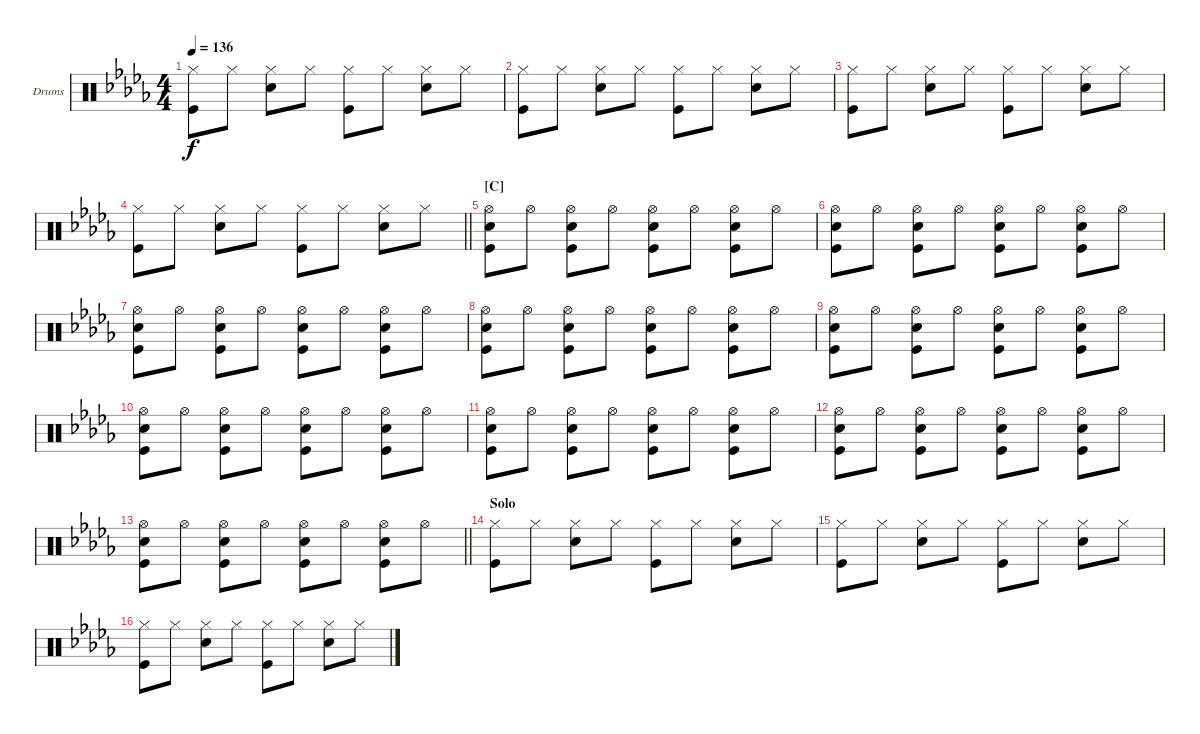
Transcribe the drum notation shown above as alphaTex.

\bracketExtendMode groupsimilarinstruments
\firstSystemTrackNameOrientation horizontal
\otherSystemsTrackNameOrientation horizontal
\track ("Fabrizio Moretti" "Drums") {instrument percussion}
\staff {score}
\articulation defaults
\ts (4 4)
\tempo 136
\clef neutral
\ks db
("Hi-Hat (closed)" "Kick (hit)").8{dy f} "Hi-Hat (closed)".8 ("Hi-Hat (closed)" "Snare (hit) 2").8 "Hi-Hat (closed)".8 ("Hi-Hat (closed)" "Kick (hit)").8 "Hi-Hat (closed)".8 ("Hi-Hat (closed)" "Snare (hit) 2").8 "Hi-Hat (closed)".8 |
("Hi-Hat (closed)" "Kick (hit)").8 "Hi-Hat (closed)".8 ("Hi-Hat (closed)" "Snare (hit) 2").8 "Hi-Hat (closed)".8 ("Hi-Hat (closed)" "Kick (hit)").8 "Hi-Hat (closed)".8 ("Hi-Hat (closed)" "Snare (hit) 2").8 "Hi-Hat (closed)".8 |
("Hi-Hat (closed)" "Kick (hit)").8 "Hi-Hat (closed)".8 ("Hi-Hat (closed)" "Snare (hit) 2").8 "Hi-Hat (closed)".8 ("Hi-Hat (closed)" "Kick (hit)").8 "Hi-Hat (closed)".8 ("Hi-Hat (closed)" "Snare (hit) 2").8 "Hi-Hat (closed)".8 |
\barLineRight lightlight
("Hi-Hat (closed)" "Kick (hit)").8 "Hi-Hat (closed)".8 ("Hi-Hat (closed)" "Snare (hit) 2").8 "Hi-Hat (closed)".8 ("Hi-Hat (closed)" "Kick (hit)").8 "Hi-Hat (closed)".8 ("Hi-Hat (closed)" "Snare (hit) 2").8 "Hi-Hat (closed)".8 |
\section ("C" "")
("Hi-Hat (open)" "Snare (hit) 2" "Kick (hit)").8 "Hi-Hat (open)".8 ("Hi-Hat (open)" "Snare (hit) 2" "Kick (hit)").8 "Hi-Hat (open)".8 ("Hi-Hat (open)" "Snare (hit) 2" "Kick (hit)").8 "Hi-Hat (open)".8 ("Hi-Hat (open)" "Snare (hit) 2" "Kick (hit)").8 "Hi-Hat (open)".8 |
("Hi-Hat (open)" "Snare (hit) 2" "Kick (hit)").8 "Hi-Hat (open)".8 ("Hi-Hat (open)" "Snare (hit) 2" "Kick (hit)").8 "Hi-Hat (open)".8 ("Hi-Hat (open)" "Snare (hit) 2" "Kick (hit)").8 "Hi-Hat (open)".8 ("Hi-Hat (open)" "Snare (hit) 2" "Kick (hit)").8 "Hi-Hat (open)".8 |
("Hi-Hat (open)" "Snare (hit) 2" "Kick (hit)").8 "Hi-Hat (open)".8 ("Hi-Hat (open)" "Snare (hit) 2" "Kick (hit)").8 "Hi-Hat (open)".8 ("Hi-Hat (open)" "Snare (hit) 2" "Kick (hit)").8 "Hi-Hat (open)".8 ("Hi-Hat (open)" "Snare (hit) 2" "Kick (hit)").8 "Hi-Hat (open)".8 |
("Hi-Hat (open)" "Snare (hit) 2" "Kick (hit)").8 "Hi-Hat (open)".8 ("Hi-Hat (open)" "Snare (hit) 2" "Kick (hit)").8 "Hi-Hat (open)".8 ("Hi-Hat (open)" "Snare (hit) 2" "Kick (hit)").8 "Hi-Hat (open)".8 ("Hi-Hat (open)" "Snare (hit) 2" "Kick (hit)").8 "Hi-Hat (open)".8 |
("Hi-Hat (open)" "Snare (hit) 2" "Kick (hit)").8 "Hi-Hat (open)".8 ("Hi-Hat (open)" "Snare (hit) 2" "Kick (hit)").8 "Hi-Hat (open)".8 ("Hi-Hat (open)" "Snare (hit) 2" "Kick (hit)").8 "Hi-Hat (open)".8 ("Hi-Hat (open)" "Snare (hit) 2" "Kick (hit)").8 "Hi-Hat (open)".8 |
("Hi-Hat (open)" "Snare (hit) 2" "Kick (hit)").8 "Hi-Hat (open)".8 ("Hi-Hat (open)" "Snare (hit) 2" "Kick (hit)").8 "Hi-Hat (open)".8 ("Hi-Hat (open)" "Snare (hit) 2" "Kick (hit)").8 "Hi-Hat (open)".8 ("Hi-Hat (open)" "Snare (hit) 2" "Kick (hit)").8 "Hi-Hat (open)".8 |
("Hi-Hat (open)" "Snare (hit) 2" "Kick (hit)").8 "Hi-Hat (open)".8 ("Hi-Hat (open)" "Snare (hit) 2" "Kick (hit)").8 "Hi-Hat (open)".8 ("Hi-Hat (open)" "Snare (hit) 2" "Kick (hit)").8 "Hi-Hat (open)".8 ("Hi-Hat (open)" "Snare (hit) 2" "Kick (hit)").8 "Hi-Hat (open)".8 |
("Hi-Hat (open)" "Snare (hit) 2" "Kick (hit)").8 "Hi-Hat (open)".8 ("Hi-Hat (open)" "Snare (hit) 2" "Kick (hit)").8 "Hi-Hat (open)".8 ("Hi-Hat (open)" "Snare (hit) 2" "Kick (hit)").8 "Hi-Hat (open)".8 ("Hi-Hat (open)" "Snare (hit) 2" "Kick (hit)").8 "Hi-Hat (open)".8 |
\barLineRight lightlight
("Hi-Hat (open)" "Snare (hit) 2" "Kick (hit)").8 "Hi-Hat (open)".8 ("Hi-Hat (open)" "Snare (hit) 2" "Kick (hit)").8 "Hi-Hat (open)".8 ("Hi-Hat (open)" "Snare (hit) 2" "Kick (hit)").8 "Hi-Hat (open)".8 ("Hi-Hat (open)" "Snare (hit) 2" "Kick (hit)").8 "Hi-Hat (open)".8 |
\section ("" "Solo")
("Hi-Hat (closed)" "Kick (hit)").8 "Hi-Hat (closed)".8 ("Hi-Hat (closed)" "Snare (hit) 2").8 "Hi-Hat (closed)".8 ("Hi-Hat (closed)" "Kick (hit)").8 "Hi-Hat (closed)".8 ("Hi-Hat (closed)" "Snare (hit) 2").8 "Hi-Hat (closed)".8 |
("Hi-Hat (closed)" "Kick (hit)").8 "Hi-Hat (closed)".8 ("Hi-Hat (closed)" "Snare (hit) 2").8 "Hi-Hat (closed)".8 ("Hi-Hat (closed)" "Kick (hit)").8 "Hi-Hat (closed)".8 ("Hi-Hat (closed)" "Snare (hit) 2").8 "Hi-Hat (closed)".8 |
("Hi-Hat (closed)" "Kick (hit)").8 "Hi-Hat (closed)".8 ("Hi-Hat (closed)" "Snare (hit) 2").8 "Hi-Hat (closed)".8 ("Hi-Hat (closed)" "Kick (hit)").8 "Hi-Hat (closed)".8 ("Hi-Hat (closed)" "Snare (hit) 2").8 "Hi-Hat (closed)".8
